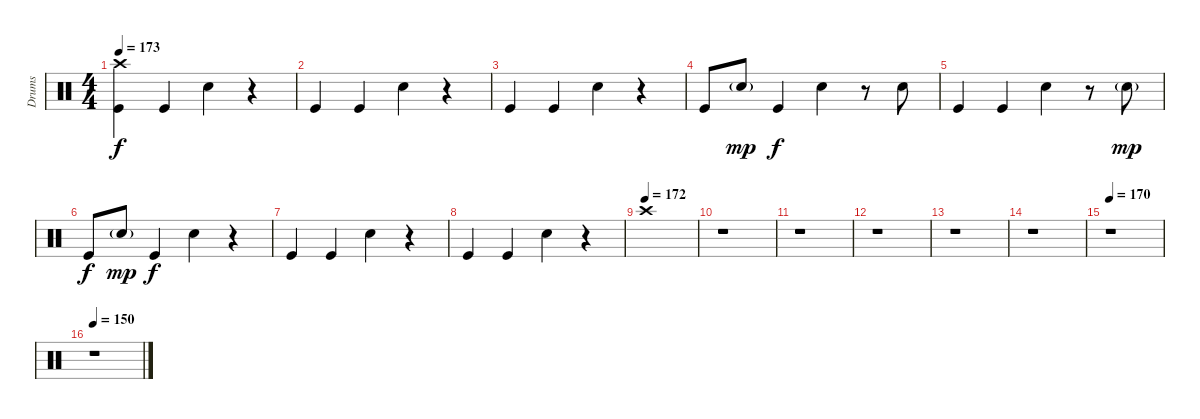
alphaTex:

\track ("Drums" "Drums") {instrument percussion}
\staff {score}
\articulation defaults
\ts (4 4)
\tempo 173
\clef neutral
\ks c
("Crash high (hit)" "Kick (hit)").4{dy f} "Kick (hit)".4 "Snare (hit) 2".4 r.4 |
"Kick (hit)".4 "Kick (hit)".4 "Snare (hit) 2".4 r.4 |
"Kick (hit)".4 "Kick (hit)".4 "Snare (hit) 2".4 r.4 |
"Kick (hit)".8 "Snare (hit) 2"{g}.8{dy mp} "Kick (hit)".4{dy f} "Snare (hit) 2".4 r.8 "Snare (hit) 2".8 |
"Kick (hit)".4 "Kick (hit)".4 "Snare (hit) 2".4 r.8 "Snare (hit) 2"{g}.8{dy mp} |
"Kick (hit)".8{dy f} "Snare (hit) 2"{g}.8{dy mp} "Kick (hit)".4{dy f} "Snare (hit) 2".4 r.4 |
"Kick (hit)".4 "Kick (hit)".4 "Snare (hit) 2".4 r.4 |
"Kick (hit)".4 "Kick (hit)".4 "Snare (hit) 2".4 r.4 |
\tempo (172)
"Crash high (hit)".1 |
r.1 |
r.1 |
r.1 |
r.1 |
r.1 |
\tempo 170
r.1 |
\tempo 150
r.1
